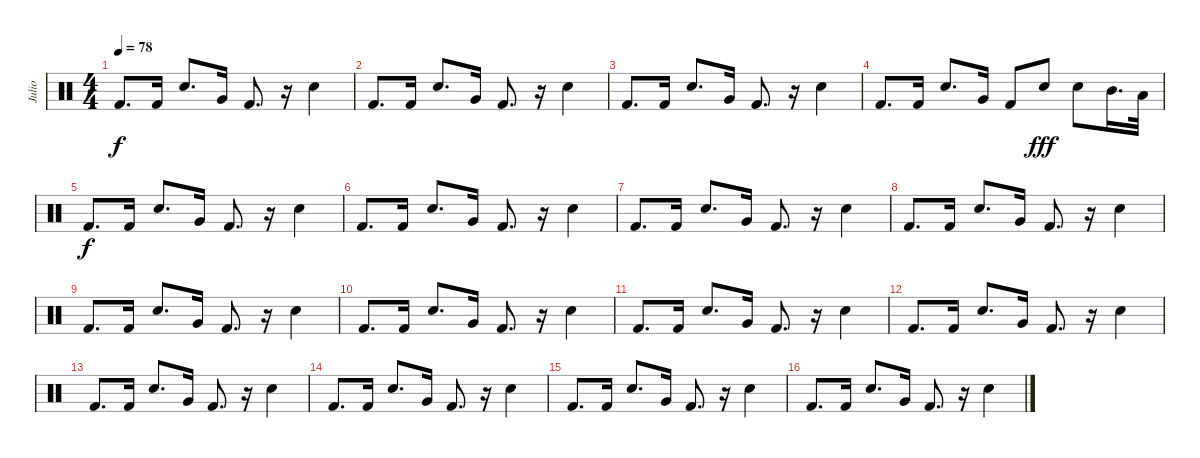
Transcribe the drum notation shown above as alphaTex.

\track ("Julio" "Julio") {instrument percussion}
\staff {score}
\articulation defaults
\ts (4 4)
\tempo 78
\clef neutral
\ks c "Kick (hit) 2".8{d dy f} "Kick (hit) 2".16 "Electric Snare (hit)".8{d} "Very Low Tom (hit)".16 "Kick (hit) 2".8{d}
r.16 "Electric Snare (hit)".4 |
"Kick (hit) 2".8{d} "Kick (hit) 2".16 "Electric Snare (hit)".8{d} "Very Low Tom (hit)".16 "Kick (hit) 2".8{d} r.16 "Electric Snare (hit)".4 |
"Kick (hit) 2".8{d} "Kick (hit) 2".16 "Electric Snare (hit)".8{d} "Very Low Tom (hit)".16 "Kick (hit) 2".8{d} r.16 "Electric Snare (hit)".4 |
"Kick (hit) 2".8{d} "Kick (hit) 2".16 "Electric Snare (hit)".8{d} "Very Low Tom (hit)".16 "Kick (hit) 2".8 "Electric Snare (hit)".8{dy fff} "Electric Snare (hit)".8 "Mid Tom (hit)".16{d} "Low Tom (hit)".32 |
"Kick (hit) 2".8{d dy f} "Kick (hit) 2".16 "Electric Snare (hit)".8{d} "Very Low Tom (hit)".16 "Kick (hit) 2".8{d} r.16 "Electric Snare (hit)".4 |
"Kick (hit) 2".8{d} "Kick (hit) 2".16 "Electric Snare (hit)".8{d} "Very Low Tom (hit)".16 "Kick (hit) 2".8{d} r.16 "Electric Snare (hit)".4 |
"Kick (hit) 2".8{d} "Kick (hit) 2".16 "Electric Snare (hit)".8{d} "Very Low Tom (hit)".16 "Kick (hit) 2".8{d} r.16 "Electric Snare (hit)".4 |
"Kick (hit) 2".8{d} "Kick (hit) 2".16 "Electric Snare (hit)".8{d} "Very Low Tom (hit)".16 "Kick (hit) 2".8{d} r.16 "Electric Snare (hit)".4 |
"Kick (hit) 2".8{d} "Kick (hit) 2".16 "Electric Snare (hit)".8{d} "Very Low Tom (hit)".16 "Kick (hit) 2".8{d} r.16 "Electric Snare (hit)".4 |
"Kick (hit) 2".8{d} "Kick (hit) 2".16 "Electric Snare (hit)".8{d} "Very Low Tom (hit)".16 "Kick (hit) 2".8{d} r.16 "Electric Snare (hit)".4 |
"Kick (hit) 2".8{d} "Kick (hit) 2".16 "Electric Snare (hit)".8{d} "Very Low Tom (hit)".16 "Kick (hit) 2".8{d} r.16 "Electric Snare (hit)".4 |
"Kick (hit) 2".8{d} "Kick (hit) 2".16 "Electric Snare (hit)".8{d} "Very Low Tom (hit)".16 "Kick (hit) 2".8{d} r.16 "Electric Snare (hit)".4 |
"Kick (hit) 2".8{d} "Kick (hit) 2".16 "Electric Snare (hit)".8{d} "Very Low Tom (hit)".16 "Kick (hit) 2".8{d} r.16 "Electric Snare (hit)".4 |
"Kick (hit) 2".8{d} "Kick (hit) 2".16 "Electric Snare (hit)".8{d} "Very Low Tom (hit)".16 "Kick (hit) 2".8{d} r.16 "Electric Snare (hit)".4 |
"Kick (hit) 2".8{d} "Kick (hit) 2".16 "Electric Snare (hit)".8{d} "Very Low Tom (hit)".16 "Kick (hit) 2".8{d} r.16 "Electric Snare (hit)".4 |
"Kick (hit) 2".8{d} "Kick (hit) 2".16 "Electric Snare (hit)".8{d} "Very Low Tom (hit)".16 "Kick (hit) 2".8{d} r.16 "Electric Snare (hit)".4
